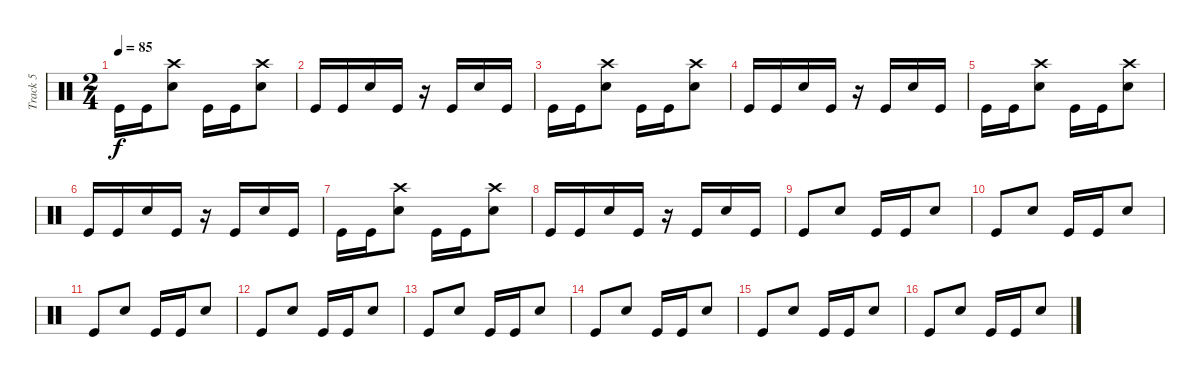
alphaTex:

\track ("Track 5" "Track 5") {instrument percussion}
\staff {score}
\articulation defaults
\ts (2 4)
\tempo 85
\clef neutral
\ks c "Kick (hit)".16{dy f} "Kick (hit)".16
("Electric Snare (hit)" "Crash high (hit)").8 "Kick (hit)".16 "Kick (hit)".16 ("Electric Snare (hit)" "Crash high (hit)").8 |
"Kick (hit)".16 "Kick (hit)".16 "Electric Snare (hit)".16 "Kick (hit)".16 r.16 "Kick (hit)".16 "Electric Snare (hit)".16 "Kick (hit)".16 |
"Kick (hit)".16 "Kick (hit)".16 ("Electric Snare (hit)" "Crash high (hit)").8 "Kick (hit)".16 "Kick (hit)".16 ("Electric Snare (hit)" "Crash high (hit)").8 |
"Kick (hit)".16 "Kick (hit)".16 "Electric Snare (hit)".16 "Kick (hit)".16 r.16 "Kick (hit)".16 "Electric Snare (hit)".16 "Kick (hit)".16 |
"Kick (hit)".16 "Kick (hit)".16 ("Electric Snare (hit)" "Crash high (hit)").8 "Kick (hit)".16 "Kick (hit)".16 ("Electric Snare (hit)" "Crash high (hit)").8 |
"Kick (hit)".16 "Kick (hit)".16 "Electric Snare (hit)".16 "Kick (hit)".16 r.16 "Kick (hit)".16 "Electric Snare (hit)".16 "Kick (hit)".16 |
"Kick (hit)".16 "Kick (hit)".16 ("Electric Snare (hit)" "Crash high (hit)").8 "Kick (hit)".16 "Kick (hit)".16 ("Electric Snare (hit)" "Crash high (hit)").8 |
"Kick (hit)".16 "Kick (hit)".16 "Electric Snare (hit)".16 "Kick (hit)".16 r.16 "Kick (hit)".16 "Electric Snare (hit)".16 "Kick (hit)".16 |
"Kick (hit)".8 "Electric Snare (hit)".8 "Kick (hit)".16 "Kick (hit)".16 "Electric Snare (hit)".8 |
"Kick (hit)".8 "Electric Snare (hit)".8 "Kick (hit)".16 "Kick (hit)".16 "Electric Snare (hit)".8 |
"Kick (hit)".8 "Electric Snare (hit)".8 "Kick (hit)".16 "Kick (hit)".16 "Electric Snare (hit)".8 |
"Kick (hit)".8 "Electric Snare (hit)".8 "Kick (hit)".16 "Kick (hit)".16 "Electric Snare (hit)".8 |
"Kick (hit)".8 "Electric Snare (hit)".8 "Kick (hit)".16 "Kick (hit)".16 "Electric Snare (hit)".8 |
"Kick (hit)".8 "Electric Snare (hit)".8 "Kick (hit)".16 "Kick (hit)".16 "Electric Snare (hit)".8 |
"Kick (hit)".8 "Electric Snare (hit)".8 "Kick (hit)".16 "Kick (hit)".16 "Electric Snare (hit)".8 |
"Kick (hit)".8 "Electric Snare (hit)".8 "Kick (hit)".16 "Kick (hit)".16 "Electric Snare (hit)".8
